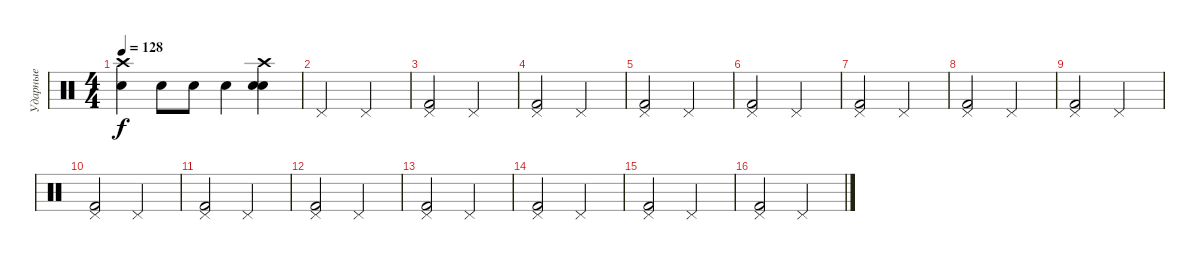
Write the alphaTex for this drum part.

\track ("Ударные" "Ударные") {instrument percussion}
\staff {score}
\articulation defaults
\ts (4 4)
\tempo 128
\clef neutral
\ks c
("Snare (hit) 2" "Crash high (hit)").4{dy f} "Snare (hit) 2".8 "Snare (hit) 2".8 "Snare (hit) 2".4 ("Electric Snare (hit)" "Snare (hit) 2" "Crash high (hit)").4 |
"Pedal Hi-Hat (hit)".2 "Pedal Hi-Hat (hit)".2 |
("Pedal Hi-Hat (hit)" "Kick (hit) 2").2 "Pedal Hi-Hat (hit)".2 |
("Pedal Hi-Hat (hit)" "Kick (hit) 2").2 "Pedal Hi-Hat (hit)".2 |
("Pedal Hi-Hat (hit)" "Kick (hit) 2").2 "Pedal Hi-Hat (hit)".2 |
("Pedal Hi-Hat (hit)" "Kick (hit) 2").2 "Pedal Hi-Hat (hit)".2 |
("Pedal Hi-Hat (hit)" "Kick (hit) 2").2 "Pedal Hi-Hat (hit)".2 |
("Pedal Hi-Hat (hit)" "Kick (hit) 2").2 "Pedal Hi-Hat (hit)".2 |
("Pedal Hi-Hat (hit)" "Kick (hit) 2").2 "Pedal Hi-Hat (hit)".2 |
("Pedal Hi-Hat (hit)" "Kick (hit) 2").2 "Pedal Hi-Hat (hit)".2 |
("Pedal Hi-Hat (hit)" "Kick (hit) 2").2 "Pedal Hi-Hat (hit)".2 |
("Pedal Hi-Hat (hit)" "Kick (hit) 2").2 "Pedal Hi-Hat (hit)".2 |
("Pedal Hi-Hat (hit)" "Kick (hit) 2").2 "Pedal Hi-Hat (hit)".2 |
("Pedal Hi-Hat (hit)" "Kick (hit) 2").2 "Pedal Hi-Hat (hit)".2 |
("Pedal Hi-Hat (hit)" "Kick (hit) 2").2 "Pedal Hi-Hat (hit)".2 |
("Pedal Hi-Hat (hit)" "Kick (hit) 2").2 "Pedal Hi-Hat (hit)".2
